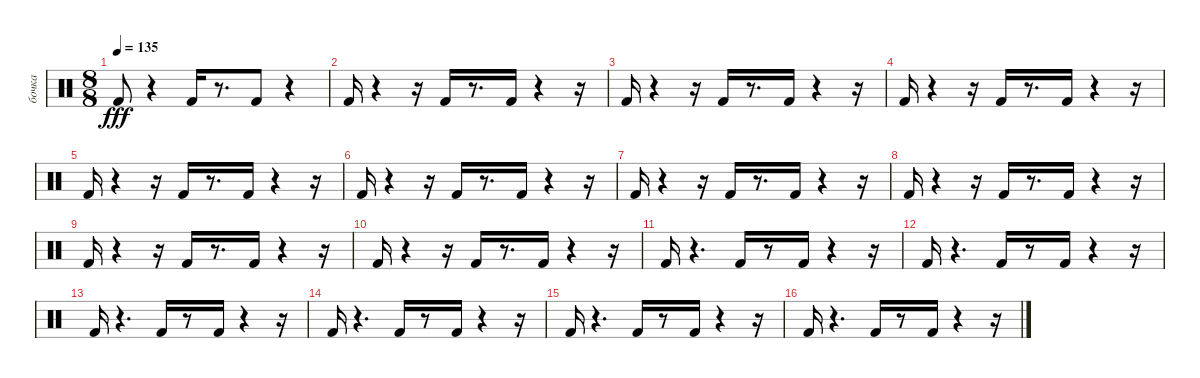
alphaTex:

\track ("бочка" "бочка") {instrument percussion}
\staff {score}
\articulation defaults
\ts (8 8)
\tempo 135
\clef neutral
\ks c "Kick (hit) 2".8{dy fff}
r.4 "Kick (hit) 2".16 r.8{d} "Kick (hit) 2".8 r.4 |
"Kick (hit) 2".16 r.4 r.16 "Kick (hit) 2".16 r.8{d} "Kick (hit) 2".16 r.4 r.16 |
"Kick (hit) 2".16 r.4 r.16 "Kick (hit) 2".16 r.8{d} "Kick (hit) 2".16 r.4 r.16 |
"Kick (hit) 2".16 r.4 r.16 "Kick (hit) 2".16 r.8{d} "Kick (hit) 2".16 r.4 r.16 |
"Kick (hit) 2".16 r.4 r.16 "Kick (hit) 2".16 r.8{d} "Kick (hit) 2".16 r.4 r.16 |
"Kick (hit) 2".16 r.4 r.16 "Kick (hit) 2".16 r.8{d} "Kick (hit) 2".16 r.4 r.16 |
"Kick (hit) 2".16 r.4 r.16 "Kick (hit) 2".16 r.8{d} "Kick (hit) 2".16 r.4 r.16 |
"Kick (hit) 2".16 r.4 r.16 "Kick (hit) 2".16 r.8{d} "Kick (hit) 2".16 r.4 r.16 |
"Kick (hit) 2".16 r.4 r.16 "Kick (hit) 2".16 r.8{d} "Kick (hit) 2".16 r.4 r.16 |
"Kick (hit) 2".16 r.4 r.16 "Kick (hit) 2".16 r.8{d} "Kick (hit) 2".16 r.4 r.16 |
"Kick (hit) 2".16 r.4{d} "Kick (hit) 2".16 r.8 "Kick (hit) 2".16 r.4 r.16 |
"Kick (hit) 2".16 r.4{d} "Kick (hit) 2".16 r.8 "Kick (hit) 2".16 r.4 r.16 |
"Kick (hit) 2".16 r.4{d} "Kick (hit) 2".16 r.8 "Kick (hit) 2".16 r.4 r.16 |
"Kick (hit) 2".16 r.4{d} "Kick (hit) 2".16 r.8 "Kick (hit) 2".16 r.4 r.16 |
"Kick (hit) 2".16 r.4{d} "Kick (hit) 2".16 r.8 "Kick (hit) 2".16 r.4 r.16 |
"Kick (hit) 2".16 r.4{d} "Kick (hit) 2".16 r.8 "Kick (hit) 2".16 r.4 r.16
